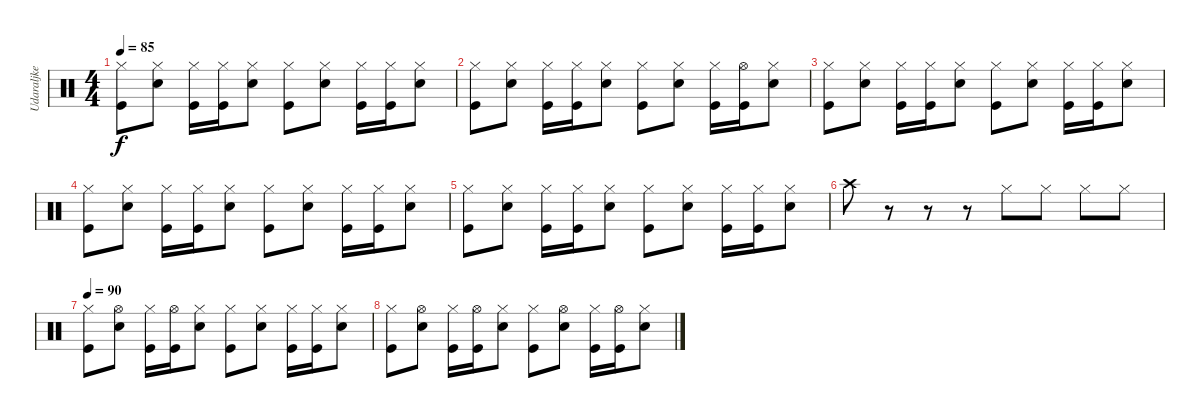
\track ("Udaraljke" "Udaraljke") {instrument percussion}
\staff {score}
\articulation defaults
\ts (4 4)
\tempo 85
\clef neutral
\ks c
("Kick (hit)" "Hi-Hat (closed)").8{dy f} ("Snare (hit) 2" "Hi-Hat (closed)").8 ("Kick (hit)" "Hi-Hat (closed)").16 ("Kick (hit)" "Hi-Hat (closed)").16 ("Snare (hit) 2" "Hi-Hat (closed)").8 ("Kick (hit)" "Hi-Hat (closed)").8 ("Snare (hit) 2" "Hi-Hat (closed)").8 ("Kick (hit)" "Hi-Hat (closed)").16 ("Kick (hit)" "Hi-Hat (closed)").16 ("Snare (hit) 2" "Hi-Hat (closed)").8 |
("Kick (hit)" "Hi-Hat (closed)").8 ("Snare (hit) 2" "Hi-Hat (closed)").8 ("Kick (hit)" "Hi-Hat (closed)").16 ("Kick (hit)" "Hi-Hat (closed)").16 ("Snare (hit) 2" "Hi-Hat (closed)").8 ("Kick (hit)" "Hi-Hat (closed)").8 ("Snare (hit) 2" "Hi-Hat (closed)").8 ("Kick (hit)" "Hi-Hat (closed)").16 ("Kick (hit)" "Hi-Hat (open)").16 ("Snare (hit) 2" "Hi-Hat (closed)").8 |
("Kick (hit)" "Hi-Hat (closed)").8 ("Snare (hit) 2" "Hi-Hat (closed)").8 ("Kick (hit)" "Hi-Hat (closed)").16 ("Kick (hit)" "Hi-Hat (closed)").16 ("Snare (hit) 2" "Hi-Hat (closed)").8 ("Kick (hit)" "Hi-Hat (closed)").8 ("Snare (hit) 2" "Hi-Hat (closed)").8 ("Kick (hit)" "Hi-Hat (closed)").16 ("Kick (hit)" "Hi-Hat (closed)").16 ("Snare (hit) 2" "Hi-Hat (closed)").8 |
("Kick (hit)" "Hi-Hat (closed)").8 ("Snare (hit) 2" "Hi-Hat (closed)").8 ("Kick (hit)" "Hi-Hat (closed)").16 ("Kick (hit)" "Hi-Hat (closed)").16 ("Snare (hit) 2" "Hi-Hat (closed)").8 ("Kick (hit)" "Hi-Hat (closed)").8 ("Snare (hit) 2" "Hi-Hat (closed)").8 ("Kick (hit)" "Hi-Hat (closed)").16 ("Kick (hit)" "Hi-Hat (closed)").16 ("Snare (hit) 2" "Hi-Hat (closed)").8 |
("Kick (hit)" "Hi-Hat (closed)").8 ("Snare (hit) 2" "Hi-Hat (closed)").8 ("Kick (hit)" "Hi-Hat (closed)").16 ("Kick (hit)" "Hi-Hat (closed)").16 ("Snare (hit) 2" "Hi-Hat (closed)").8 ("Kick (hit)" "Hi-Hat (closed)").8 ("Snare (hit) 2" "Hi-Hat (closed)").8 ("Kick (hit)" "Hi-Hat (closed)").16 ("Kick (hit)" "Hi-Hat (closed)").16 ("Snare (hit) 2" "Hi-Hat (closed)").8 |
"Crash high (hit)".8 r.8 r.8 r.8 "Hi-Hat (closed)".8 "Hi-Hat (closed)".8 "Hi-Hat (closed)".8 "Hi-Hat (closed)".8 |
\tempo 90
("Kick (hit)" "Hi-Hat (closed)").8 ("Snare (hit) 2" "Hi-Hat (open)").8 ("Kick (hit)" "Hi-Hat (closed)").16 ("Kick (hit)" "Hi-Hat (open)").16 ("Snare (hit) 2" "Hi-Hat (closed)").8 ("Kick (hit)" "Hi-Hat (closed)").8 ("Snare (hit) 2" "Hi-Hat (closed)").8 ("Kick (hit)" "Hi-Hat (closed)").16 ("Kick (hit)" "Hi-Hat (closed)").16 ("Snare (hit) 2" "Hi-Hat (closed)").8 |
("Kick (hit)" "Hi-Hat (closed)").8 ("Snare (hit) 2" "Hi-Hat (open)").8 ("Kick (hit)" "Hi-Hat (closed)").16 ("Kick (hit)" "Hi-Hat (open)").16 ("Snare (hit) 2" "Hi-Hat (closed)").8 ("Kick (hit)" "Hi-Hat (closed)").8 ("Snare (hit) 2" "Hi-Hat (open)").8 ("Kick (hit)" "Hi-Hat (closed)").16 ("Kick (hit)" "Hi-Hat (open)").16 ("Snare (hit) 2" "Hi-Hat (closed)").8
